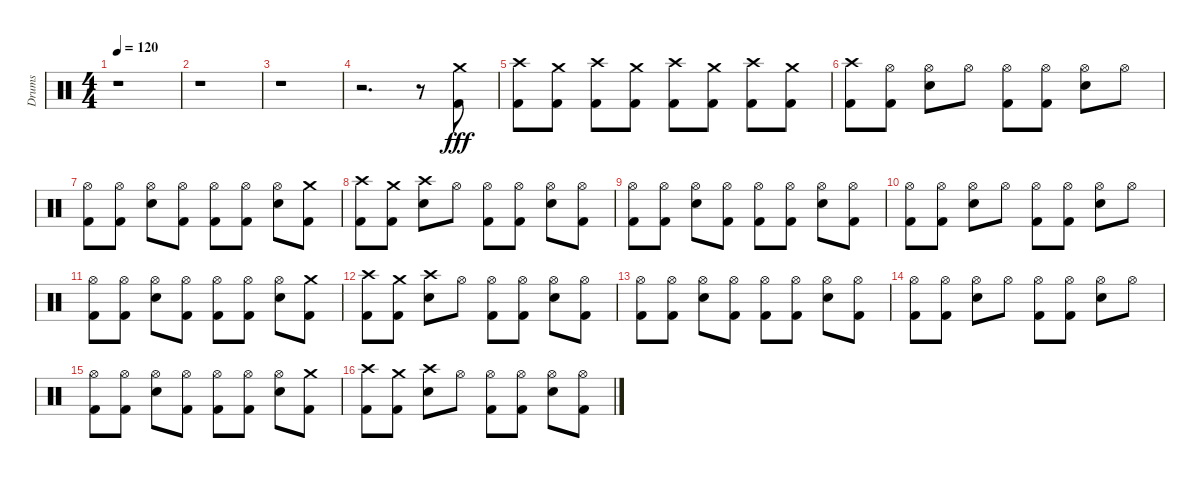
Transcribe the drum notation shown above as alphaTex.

\track ("Drums" "Drums") {instrument percussion}
\staff {score}
\articulation defaults
\ts (4 4)
\tempo 120
\clef neutral
\ks c
r.1{dy fff} |
r.1 |
r.1 |
r.2{d} r.8 ("Crash medium (hit)" "Kick (hit) 2").8 |
("Crash high (hit)" "Kick (hit) 2").8 ("Crash medium (hit)" "Kick (hit) 2").8 ("Crash high (hit)" "Kick (hit) 2").8 ("Crash medium (hit)" "Kick (hit) 2").8 ("Crash high (hit)" "Kick (hit) 2").8 ("Crash medium (hit)" "Kick (hit) 2").8 ("Crash high (hit)" "Kick (hit) 2").8 ("Crash medium (hit)" "Kick (hit) 2").8 |
("Kick (hit) 2" "Crash high (hit)").8 ("Hi-Hat (open)" "Kick (hit) 2").8 ("Hi-Hat (open)" "Electric Snare (hit)").8 "Hi-Hat (open)".8 ("Hi-Hat (open)" "Kick (hit) 2").8 ("Hi-Hat (open)" "Kick (hit) 2").8 ("Hi-Hat (open)" "Electric Snare (hit)").8 "Hi-Hat (open)".8 |
("Hi-Hat (open)" "Kick (hit) 2").8 ("Hi-Hat (open)" "Kick (hit) 2").8 ("Hi-Hat (open)" "Electric Snare (hit)").8 ("Kick (hit) 2" "Hi-Hat (open)").8 ("Hi-Hat (open)" "Kick (hit) 2").8 ("Hi-Hat (open)" "Kick (hit) 2").8 ("Hi-Hat (open)" "Electric Snare (hit)").8 ("Crash medium (hit)" "Kick (hit) 2").8 |
("Kick (hit) 2" "Crash high (hit)").8 ("Crash medium (hit)" "Kick (hit) 2").8 ("Crash high (hit)" "Electric Snare (hit)").8 "Hi-Hat (open)".8 ("Hi-Hat (open)" "Kick (hit) 2").8 ("Hi-Hat (open)" "Kick (hit) 2").8 ("Hi-Hat (open)" "Electric Snare (hit)").8 ("Hi-Hat (open)" "Kick (hit) 2").8 |
("Hi-Hat (open)" "Kick (hit) 2").8 ("Hi-Hat (open)" "Kick (hit) 2").8 ("Hi-Hat (open)" "Electric Snare (hit)").8 ("Hi-Hat (open)" "Kick (hit) 2").8 ("Hi-Hat (open)" "Kick (hit) 2").8 ("Hi-Hat (open)" "Kick (hit) 2").8 ("Hi-Hat (open)" "Electric Snare (hit)").8 ("Hi-Hat (open)" "Kick (hit) 2").8 |
("Kick (hit) 2" "Hi-Hat (open)").8 ("Hi-Hat (open)" "Kick (hit) 2").8 ("Hi-Hat (open)" "Electric Snare (hit)").8 "Hi-Hat (open)".8 ("Hi-Hat (open)" "Kick (hit) 2").8 ("Hi-Hat (open)" "Kick (hit) 2").8 ("Hi-Hat (open)" "Electric Snare (hit)").8 "Hi-Hat (open)".8 |
("Hi-Hat (open)" "Kick (hit) 2").8 ("Hi-Hat (open)" "Kick (hit) 2").8 ("Hi-Hat (open)" "Electric Snare (hit)").8 ("Kick (hit) 2" "Hi-Hat (open)").8 ("Hi-Hat (open)" "Kick (hit) 2").8 ("Hi-Hat (open)" "Kick (hit) 2").8 ("Hi-Hat (open)" "Electric Snare (hit)").8 ("Crash medium (hit)" "Kick (hit) 2").8 |
("Kick (hit) 2" "Crash high (hit)").8 ("Crash medium (hit)" "Kick (hit) 2").8 ("Crash high (hit)" "Electric Snare (hit)").8 "Hi-Hat (open)".8 ("Hi-Hat (open)" "Kick (hit) 2").8 ("Hi-Hat (open)" "Kick (hit) 2").8 ("Hi-Hat (open)" "Electric Snare (hit)").8 ("Hi-Hat (open)" "Kick (hit) 2").8 |
("Hi-Hat (open)" "Kick (hit) 2").8 ("Hi-Hat (open)" "Kick (hit) 2").8 ("Hi-Hat (open)" "Electric Snare (hit)").8 ("Hi-Hat (open)" "Kick (hit) 2").8 ("Hi-Hat (open)" "Kick (hit) 2").8 ("Hi-Hat (open)" "Kick (hit) 2").8 ("Hi-Hat (open)" "Electric Snare (hit)").8 ("Hi-Hat (open)" "Kick (hit) 2").8 |
("Kick (hit) 2" "Hi-Hat (open)").8 ("Hi-Hat (open)" "Kick (hit) 2").8 ("Hi-Hat (open)" "Electric Snare (hit)").8 "Hi-Hat (open)".8 ("Hi-Hat (open)" "Kick (hit) 2").8 ("Hi-Hat (open)" "Kick (hit) 2").8 ("Hi-Hat (open)" "Electric Snare (hit)").8 "Hi-Hat (open)".8 |
("Hi-Hat (open)" "Kick (hit) 2").8 ("Hi-Hat (open)" "Kick (hit) 2").8 ("Hi-Hat (open)" "Electric Snare (hit)").8 ("Kick (hit) 2" "Hi-Hat (open)").8 ("Hi-Hat (open)" "Kick (hit) 2").8 ("Hi-Hat (open)" "Kick (hit) 2").8 ("Hi-Hat (open)" "Electric Snare (hit)").8 ("Crash medium (hit)" "Kick (hit) 2").8 |
("Kick (hit) 2" "Crash high (hit)").8 ("Crash medium (hit)" "Kick (hit) 2").8 ("Crash high (hit)" "Electric Snare (hit)").8 "Hi-Hat (open)".8 ("Hi-Hat (open)" "Kick (hit) 2").8 ("Hi-Hat (open)" "Kick (hit) 2").8 ("Hi-Hat (open)" "Electric Snare (hit)").8 ("Hi-Hat (open)" "Kick (hit) 2").8
